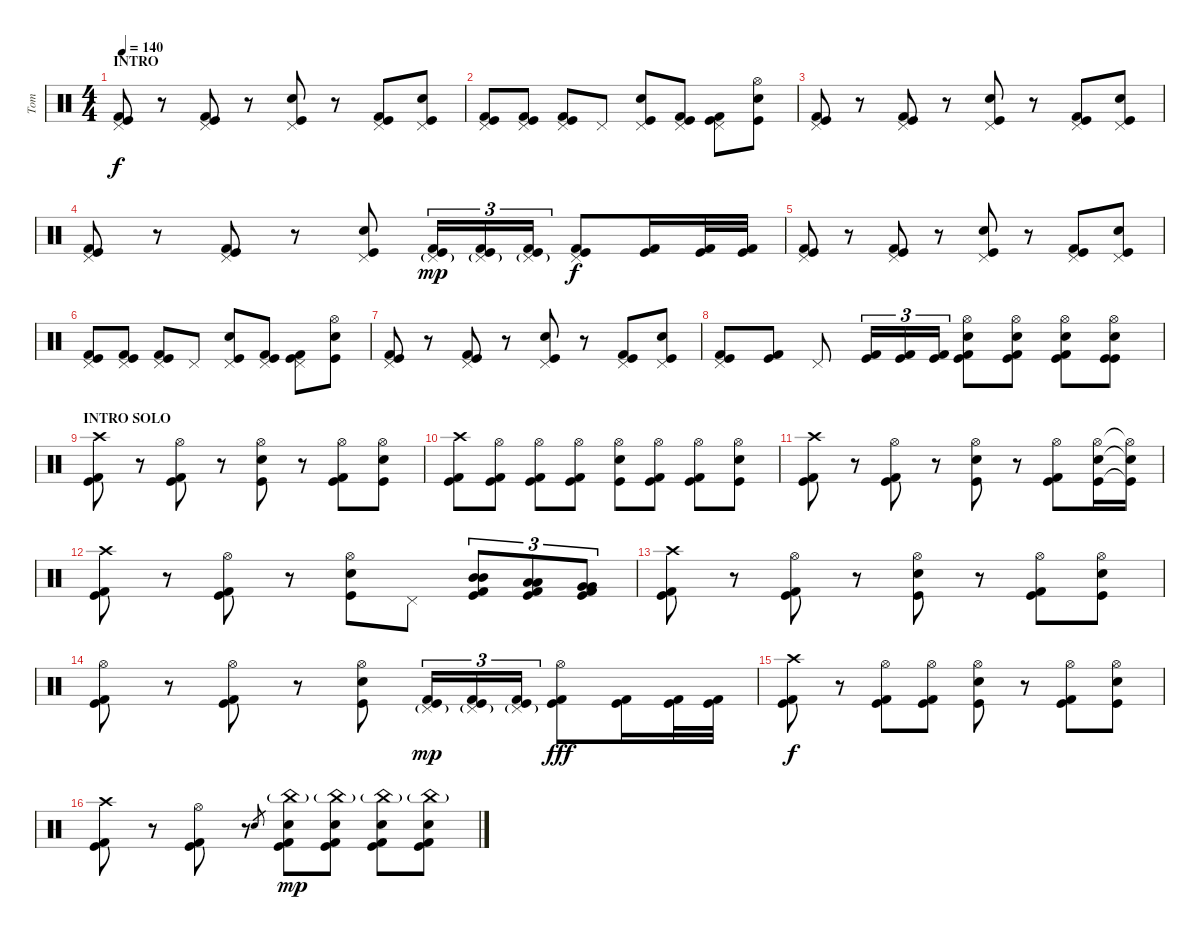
\track ("Tom" "Tom") {instrument percussion}
\staff {score}
\articulation defaults
\ts (4 4)
\section ("" "INTRO")
\tempo 140
\clef neutral
\ks c
("Pedal Hi-Hat (hit)" "Kick (hit)" "Kick (hit) 2").8{dy f} r.8 ("Pedal Hi-Hat (hit)" "Kick (hit)" "Kick (hit) 2").8 r.8 ("Pedal Hi-Hat (hit)" "Kick (hit)" "Electric Snare (hit)").8 r.8 ("Pedal Hi-Hat (hit)" "Kick (hit)" "Kick (hit) 2").8 ("Pedal Hi-Hat (hit)" "Kick (hit)" "Electric Snare (hit)").8 |
("Pedal Hi-Hat (hit)" "Kick (hit)" "Kick (hit) 2").8 ("Pedal Hi-Hat (hit)" "Kick (hit)" "Kick (hit) 2").8 ("Pedal Hi-Hat (hit)" "Kick (hit)" "Kick (hit) 2").8 "Pedal Hi-Hat (hit)".8 ("Pedal Hi-Hat (hit)" "Kick (hit)" "Electric Snare (hit)").8 ("Pedal Hi-Hat (hit)" "Kick (hit)" "Kick (hit) 2").8 ("Pedal Hi-Hat (hit)" "Kick (hit)" "Kick (hit) 2").8 ("Hi-Hat (open)" "Kick (hit)" "Electric Snare (hit)").8 |
("Pedal Hi-Hat (hit)" "Kick (hit)" "Kick (hit) 2").8 r.8 ("Pedal Hi-Hat (hit)" "Kick (hit)" "Kick (hit) 2").8 r.8 ("Pedal Hi-Hat (hit)" "Kick (hit)" "Electric Snare (hit)").8 r.8 ("Pedal Hi-Hat (hit)" "Kick (hit)" "Kick (hit) 2").8 ("Pedal Hi-Hat (hit)" "Kick (hit)" "Electric Snare (hit)").8 |
("Pedal Hi-Hat (hit)" "Kick (hit)" "Kick (hit) 2").8 r.8 ("Pedal Hi-Hat (hit)" "Kick (hit)" "Kick (hit) 2").8 r.8 ("Pedal Hi-Hat (hit)" "Kick (hit)" "Electric Snare (hit)").8 ("Kick (hit)" "Kick (hit) 2" "Pedal Hi-Hat (hit)"{g}).16{tu (3 2) dy mp} ("Kick (hit)" "Kick (hit) 2" "Pedal Hi-Hat (hit)"{g}).16{tu (3 2)} ("Kick (hit)" "Kick (hit) 2" "Pedal Hi-Hat (hit)"{g}).16{tu (3 2)} ("Pedal Hi-Hat (hit)" "Kick (hit)" "Kick (hit) 2").8{dy f} ("Kick (hit)" "Kick (hit) 2").16 ("Kick (hit)" "Kick (hit) 2").32 ("Kick (hit)" "Kick (hit) 2").32 |
("Pedal Hi-Hat (hit)" "Kick (hit)" "Kick (hit) 2").8 r.8 ("Pedal Hi-Hat (hit)" "Kick (hit)" "Kick (hit) 2").8 r.8 ("Pedal Hi-Hat (hit)" "Kick (hit)" "Electric Snare (hit)").8 r.8 ("Pedal Hi-Hat (hit)" "Kick (hit)" "Kick (hit) 2").8 ("Pedal Hi-Hat (hit)" "Kick (hit)" "Electric Snare (hit)").8 |
("Pedal Hi-Hat (hit)" "Kick (hit)" "Kick (hit) 2").8 ("Pedal Hi-Hat (hit)" "Kick (hit)" "Kick (hit) 2").8 ("Pedal Hi-Hat (hit)" "Kick (hit)" "Kick (hit) 2").8 "Pedal Hi-Hat (hit)".8 ("Pedal Hi-Hat (hit)" "Kick (hit)" "Electric Snare (hit)").8 ("Pedal Hi-Hat (hit)" "Kick (hit)" "Kick (hit) 2").8 ("Pedal Hi-Hat (hit)" "Kick (hit)" "Kick (hit) 2").8 ("Hi-Hat (open)" "Kick (hit)" "Electric Snare (hit)").8 |
("Pedal Hi-Hat (hit)" "Kick (hit)" "Kick (hit) 2").8 r.8 ("Pedal Hi-Hat (hit)" "Kick (hit)" "Kick (hit) 2").8 r.8 ("Pedal Hi-Hat (hit)" "Kick (hit)" "Electric Snare (hit)").8 r.8 ("Pedal Hi-Hat (hit)" "Kick (hit)" "Kick (hit) 2").8 ("Pedal Hi-Hat (hit)" "Kick (hit)" "Electric Snare (hit)").8 |
("Pedal Hi-Hat (hit)" "Kick (hit)" "Kick (hit) 2").8 ("Kick (hit)" "Kick (hit) 2").8 "Pedal Hi-Hat (hit)".8 ("Kick (hit)" "Kick (hit) 2").16{tu (3 2)} ("Kick (hit)" "Kick (hit) 2").16{tu (3 2)} ("Kick (hit)" "Kick (hit) 2").16{tu (3 2)} ("Hi-Hat (open)" "Kick (hit) 2" "Kick (hit)" "Electric Snare (hit)").8 ("Hi-Hat (open)" "Kick (hit) 2" "Kick (hit)" "Electric Snare (hit)").8 ("Hi-Hat (open)" "Kick (hit) 2" "Kick (hit)" "Electric Snare (hit)").8 ("Hi-Hat (open)" "Kick (hit)" "Kick (hit)" "Electric Snare (hit)").8 |
\section ("" "INTRO SOLO")
("Crash high (hit)" "Kick (hit)" "Kick (hit) 2").8 r.8 ("Hi-Hat (open)" "Kick (hit)" "Kick (hit) 2").8 r.8 ("Hi-Hat (open)" "Kick (hit)" "Electric Snare (hit)").8 r.8 ("Hi-Hat (open)" "Kick (hit)" "Kick (hit) 2").8 ("Hi-Hat (open)" "Kick (hit)" "Electric Snare (hit)").8 |
("Crash high (hit)" "Kick (hit)" "Kick (hit) 2").8 ("Hi-Hat (open)" "Kick (hit)" "Kick (hit) 2").8 ("Hi-Hat (open)" "Kick (hit)" "Kick (hit) 2").8 ("Hi-Hat (open)" "Kick (hit)" "Kick (hit) 2").8 ("Hi-Hat (open)" "Kick (hit)" "Electric Snare (hit)").8 ("Hi-Hat (open)" "Kick (hit)" "Kick (hit) 2").8 ("Hi-Hat (open)" "Kick (hit)" "Kick (hit) 2").8 ("Hi-Hat (open)" "Kick (hit)" "Electric Snare (hit)").8 |
("Crash high (hit)" "Kick (hit)" "Kick (hit) 2").8 r.8 ("Hi-Hat (open)" "Kick (hit)" "Kick (hit) 2").8 r.8 ("Hi-Hat (open)" "Kick (hit)" "Electric Snare (hit)").8 r.8 ("Hi-Hat (open)" "Kick (hit)" "Kick (hit) 2").8 ("Hi-Hat (open)" "Kick (hit)" "Electric Snare (hit)").16 ("Hi-Hat (open)"{t} "Kick (hit)"{t} "Electric Snare (hit)"{t}).16 |
("Crash high (hit)" "Kick (hit)" "Kick (hit) 2").8 r.8 ("Hi-Hat (open)" "Kick (hit)" "Kick (hit) 2").8 r.8 ("Hi-Hat (open)" "Kick (hit)" "Electric Snare (hit)").8 "Pedal Hi-Hat (hit)".8 ("Mid Tom (hit)" "Mid Tom (hit)" "Kick (hit)" "Kick (hit) 2").8{tu (3 2)} ("Low Tom (hit)" "Low Tom (hit)" "Kick (hit)" "Kick (hit) 2").8{tu (3 2)} ("Very Low Tom (hit)" "Very Low Tom (hit)" "Kick (hit)" "Kick (hit) 2").8{tu (3 2)} |
("Crash high (hit)" "Kick (hit)" "Kick (hit) 2").8 r.8 ("Hi-Hat (open)" "Kick (hit)" "Kick (hit) 2").8 r.8 ("Hi-Hat (open)" "Kick (hit)" "Electric Snare (hit)").8 r.8 ("Hi-Hat (open)" "Kick (hit)" "Kick (hit) 2").8 ("Hi-Hat (open)" "Kick (hit)" "Electric Snare (hit)").8 |
("Hi-Hat (open)" "Kick (hit)" "Kick (hit) 2").8 r.8 ("Hi-Hat (open)" "Kick (hit)" "Kick (hit) 2").8 r.8 ("Hi-Hat (open)" "Kick (hit)" "Electric Snare (hit)").8 ("Kick (hit)" "Kick (hit) 2" "Pedal Hi-Hat (hit)"{g}).16{tu (3 2) dy mp} ("Kick (hit)" "Kick (hit) 2" "Pedal Hi-Hat (hit)"{g}).16{tu (3 2)} ("Kick (hit)" "Kick (hit) 2" "Pedal Hi-Hat (hit)"{g}).16{tu (3 2)} ("Hi-Hat (open)" "Kick (hit)" "Kick (hit) 2").8{dy fff} ("Kick (hit)" "Kick (hit) 2").16 ("Kick (hit)" "Kick (hit) 2").32 ("Kick (hit)" "Kick (hit) 2").32 |
("Crash high (hit)" "Kick (hit)" "Kick (hit) 2").8{dy f} r.8 ("Hi-Hat (open)" "Kick (hit)" "Kick (hit) 2").8 ("Hi-Hat (open)" "Kick (hit)" "Kick (hit) 2").8 ("Hi-Hat (open)" "Kick (hit)" "Electric Snare (hit)").8 r.8 ("Hi-Hat (open)" "Kick (hit)" "Kick (hit) 2").8 ("Hi-Hat (open)" "Kick (hit)" "Electric Snare (hit)").8 |
("Crash high (hit)" "Kick (hit)" "Kick (hit) 2").8 r.8 ("Hi-Hat (open)" "Kick (hit)" "Kick (hit) 2").8 r.8 "Electric Snare (hit)".8{gr} ("China (hit)"{g} "Kick (hit) 2" "Kick (hit)" "Electric Snare (hit)").8{dy mp} ("China (hit)"{g} "Kick (hit) 2" "Kick (hit)" "Electric Snare (hit)").8 ("China (hit)"{g} "Kick (hit) 2" "Kick (hit)" "Electric Snare (hit)").8 ("China (hit)"{g} "Kick (hit) 2" "Kick (hit)" "Electric Snare (hit)").8
